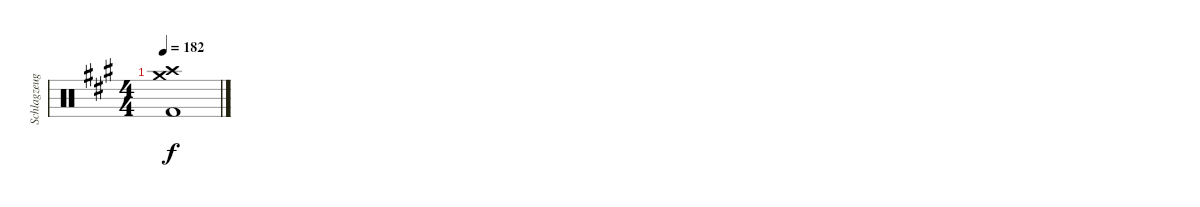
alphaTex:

\track ("Schlagzeug" "Schlagzeug") {instrument percussion}
\staff {score}
\articulation defaults
\ts (4 4)
\tempo 182
\clef neutral
\ks a
("Crash high (hit)" "Crash medium (hit)" "Kick (hit) 2").1{dy f}
